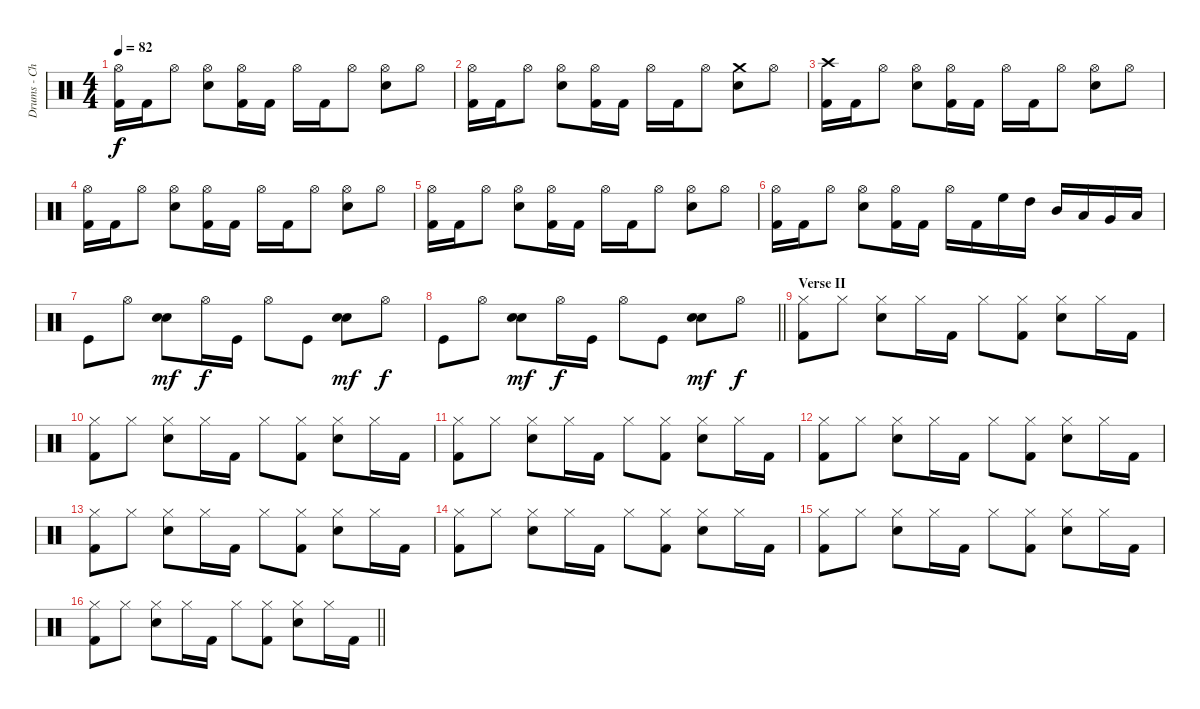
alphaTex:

\track ("Drums - Christoph Schneider" "Drums - Ch") {instrument percussion}
\staff {score}
\articulation defaults
\ts (4 4)
\tempo 82
\clef neutral
\ks c
("Hi-Hat (open)" "Kick (hit) 2").16{dy f} "Kick (hit) 2".16 "Hi-Hat (open)".8 ("Hi-Hat (open)" "Snare (hit) 2").8 ("Hi-Hat (open)" "Kick (hit) 2").16 "Kick (hit) 2".16 "Hi-Hat (open)".16 "Kick (hit) 2".16 "Hi-Hat (open)".8 ("Hi-Hat (open)" "Snare (hit) 2").8 "Hi-Hat (open)".8 |
("Hi-Hat (open)" "Kick (hit) 2").16 "Kick (hit) 2".16 "Hi-Hat (open)".8 ("Hi-Hat (open)" "Snare (hit) 2").8 ("Hi-Hat (open)" "Kick (hit) 2").16 "Kick (hit) 2".16 "Hi-Hat (open)".16 "Kick (hit) 2".16 "Hi-Hat (open)".8 ("Crash medium (hit)" "Snare (hit) 2").8 "Hi-Hat (open)".8 |
("Crash high (hit)" "Kick (hit) 2").16 "Kick (hit) 2".16 "Hi-Hat (open)".8 ("Hi-Hat (open)" "Snare (hit) 2").8 ("Hi-Hat (open)" "Kick (hit) 2").16 "Kick (hit) 2".16 "Hi-Hat (open)".16 "Kick (hit) 2".16 "Hi-Hat (open)".8 ("Hi-Hat (open)" "Snare (hit) 2").8 "Hi-Hat (open)".8 |
("Hi-Hat (open)" "Kick (hit) 2").16 "Kick (hit) 2".16 "Hi-Hat (open)".8 ("Hi-Hat (open)" "Snare (hit) 2").8 ("Hi-Hat (open)" "Kick (hit) 2").16 "Kick (hit) 2".16 "Hi-Hat (open)".16 "Kick (hit) 2".16 "Hi-Hat (open)".8 ("Hi-Hat (open)" "Snare (hit) 2").8 "Hi-Hat (open)".8 |
("Hi-Hat (open)" "Kick (hit) 2").16 "Kick (hit) 2".16 "Hi-Hat (open)".8 ("Hi-Hat (open)" "Snare (hit) 2").8 ("Hi-Hat (open)" "Kick (hit) 2").16 "Kick (hit) 2".16 "Hi-Hat (open)".16 "Kick (hit) 2".16 "Hi-Hat (open)".8 ("Hi-Hat (open)" "Snare (hit) 2").8 "Hi-Hat (open)".8 |
("Hi-Hat (open)" "Kick (hit) 2").16 "Kick (hit) 2".16 "Hi-Hat (open)".8 ("Hi-Hat (open)" "Snare (hit) 2").8 ("Hi-Hat (open)" "Kick (hit) 2").16 "Kick (hit) 2".16 "Hi-Hat (open)".16 "Kick (hit) 2".16 "High Floor Tom (hit)".16 "High Tom (hit)".16 "Mid Tom (hit)".16 "Low Tom (hit)".16 "Very Low Tom (hit)".16 "Low Floor Tom (hit)".16 |
"Kick (hit)".8 "Hi-Hat (open)".8 ("Hand Clap (hit)" "Snare (hit) 2").8{dy mf} "Hi-Hat (open)".16{dy f} "Kick (hit)".16 "Hi-Hat (open)".8 "Kick (hit)".8 ("Hand Clap (hit)" "Snare (hit) 2").8{dy mf} "Hi-Hat (open)".8{dy f} |
\barLineRight lightlight "Kick (hit)".8 "Hi-Hat (open)".8
("Hand Clap (hit)" "Snare (hit) 2").8{dy mf} "Hi-Hat (open)".16{dy f} "Kick (hit)".16 "Hi-Hat (open)".8 "Kick (hit)".8 ("Hand Clap (hit)" "Snare (hit) 2").8{dy mf} "Hi-Hat (open)".8{dy f} |
\section ("" "Verse II")
("Hi-Hat (closed)" "Kick (hit) 2").8 "Hi-Hat (closed)".8 ("Hi-Hat (closed)" "Snare (hit) 2").8 "Hi-Hat (closed)".16 "Kick (hit) 2".16 "Hi-Hat (closed)".8 ("Hi-Hat (closed)" "Kick (hit) 2").8 ("Hi-Hat (closed)" "Snare (hit) 2").8 "Hi-Hat (closed)".16 "Kick (hit) 2".16 |
("Hi-Hat (closed)" "Kick (hit) 2").8 "Hi-Hat (closed)".8 ("Hi-Hat (closed)" "Snare (hit) 2").8 "Hi-Hat (closed)".16 "Kick (hit) 2".16 "Hi-Hat (closed)".8 ("Hi-Hat (closed)" "Kick (hit) 2").8 ("Hi-Hat (closed)" "Snare (hit) 2").8 "Hi-Hat (closed)".16 "Kick (hit) 2".16 |
("Hi-Hat (closed)" "Kick (hit) 2").8 "Hi-Hat (closed)".8 ("Hi-Hat (closed)" "Snare (hit) 2").8 "Hi-Hat (closed)".16 "Kick (hit) 2".16 "Hi-Hat (closed)".8 ("Hi-Hat (closed)" "Kick (hit) 2").8 ("Hi-Hat (closed)" "Snare (hit) 2").8 "Hi-Hat (closed)".16 "Kick (hit) 2".16 |
("Hi-Hat (closed)" "Kick (hit) 2").8 "Hi-Hat (closed)".8 ("Hi-Hat (closed)" "Snare (hit) 2").8 "Hi-Hat (closed)".16 "Kick (hit) 2".16 "Hi-Hat (closed)".8 ("Hi-Hat (closed)" "Kick (hit) 2").8 ("Hi-Hat (closed)" "Snare (hit) 2").8 "Hi-Hat (closed)".16 "Kick (hit) 2".16 |
("Hi-Hat (closed)" "Kick (hit) 2").8 "Hi-Hat (closed)".8 ("Hi-Hat (closed)" "Snare (hit) 2").8 "Hi-Hat (closed)".16 "Kick (hit) 2".16 "Hi-Hat (closed)".8 ("Hi-Hat (closed)" "Kick (hit) 2").8 ("Hi-Hat (closed)" "Snare (hit) 2").8 "Hi-Hat (closed)".16 "Kick (hit) 2".16 |
("Hi-Hat (closed)" "Kick (hit) 2").8 "Hi-Hat (closed)".8 ("Hi-Hat (closed)" "Snare (hit) 2").8 "Hi-Hat (closed)".16 "Kick (hit) 2".16 "Hi-Hat (closed)".8 ("Hi-Hat (closed)" "Kick (hit) 2").8 ("Hi-Hat (closed)" "Snare (hit) 2").8 "Hi-Hat (closed)".16 "Kick (hit) 2".16 |
("Hi-Hat (closed)" "Kick (hit) 2").8 "Hi-Hat (closed)".8 ("Hi-Hat (closed)" "Snare (hit) 2").8 "Hi-Hat (closed)".16 "Kick (hit) 2".16 "Hi-Hat (closed)".8 ("Hi-Hat (closed)" "Kick (hit) 2").8 ("Hi-Hat (closed)" "Snare (hit) 2").8 "Hi-Hat (closed)".16 "Kick (hit) 2".16 |
\barLineRight lightlight
("Hi-Hat (closed)" "Kick (hit) 2").8 "Hi-Hat (closed)".8 ("Hi-Hat (closed)" "Snare (hit) 2").8 "Hi-Hat (closed)".16 "Kick (hit) 2".16 "Hi-Hat (closed)".8 ("Hi-Hat (closed)" "Kick (hit) 2").8 ("Hi-Hat (closed)" "Snare (hit) 2").8 "Hi-Hat (closed)".16 "Kick (hit) 2".16
